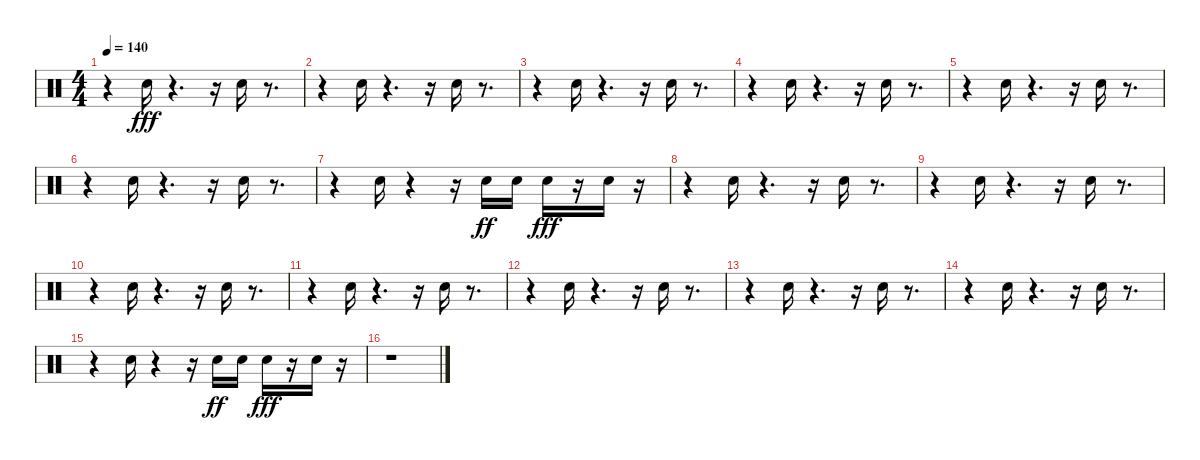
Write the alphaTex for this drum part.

\track "" {instrument percussion}
\staff {score}
\articulation defaults
\ts (4 4)
\tempo 140
\clef neutral
\ks c
r.4{dy fff} "Snare (hit) 2".16 r.4{d} r.16 "Snare (hit) 2".16 r.8{d} |
r.4 "Snare (hit) 2".16 r.4{d} r.16 "Snare (hit) 2".16 r.8{d} |
r.4 "Snare (hit) 2".16 r.4{d} r.16 "Snare (hit) 2".16 r.8{d} |
r.4 "Snare (hit) 2".16 r.4{d} r.16 "Snare (hit) 2".16 r.8{d} |
r.4 "Snare (hit) 2".16 r.4{d} r.16 "Snare (hit) 2".16 r.8{d} |
r.4 "Snare (hit) 2".16 r.4{d} r.16 "Snare (hit) 2".16 r.8{d} |
r.4 "Snare (hit) 2".16 r.4 r.16 "Snare (hit) 2".16{dy ff} "Snare (hit) 2".16 "Snare (hit) 2".16{dy fff} r.16 "Snare (hit) 2".16 r.16 |
r.4 "Snare (hit) 2".16 r.4{d} r.16 "Snare (hit) 2".16 r.8{d} |
r.4 "Snare (hit) 2".16 r.4{d} r.16 "Snare (hit) 2".16 r.8{d} |
r.4 "Snare (hit) 2".16 r.4{d} r.16 "Snare (hit) 2".16 r.8{d} |
r.4 "Snare (hit) 2".16 r.4{d} r.16 "Snare (hit) 2".16 r.8{d} |
r.4 "Snare (hit) 2".16 r.4{d} r.16 "Snare (hit) 2".16 r.8{d} |
r.4 "Snare (hit) 2".16 r.4{d} r.16 "Snare (hit) 2".16 r.8{d} |
r.4 "Snare (hit) 2".16 r.4{d} r.16 "Snare (hit) 2".16 r.8{d} |
r.4 "Snare (hit) 2".16 r.4 r.16 "Snare (hit) 2".16{dy ff} "Snare (hit) 2".16 "Snare (hit) 2".16{dy fff} r.16 "Snare (hit) 2".16 r.16 |
r.1
